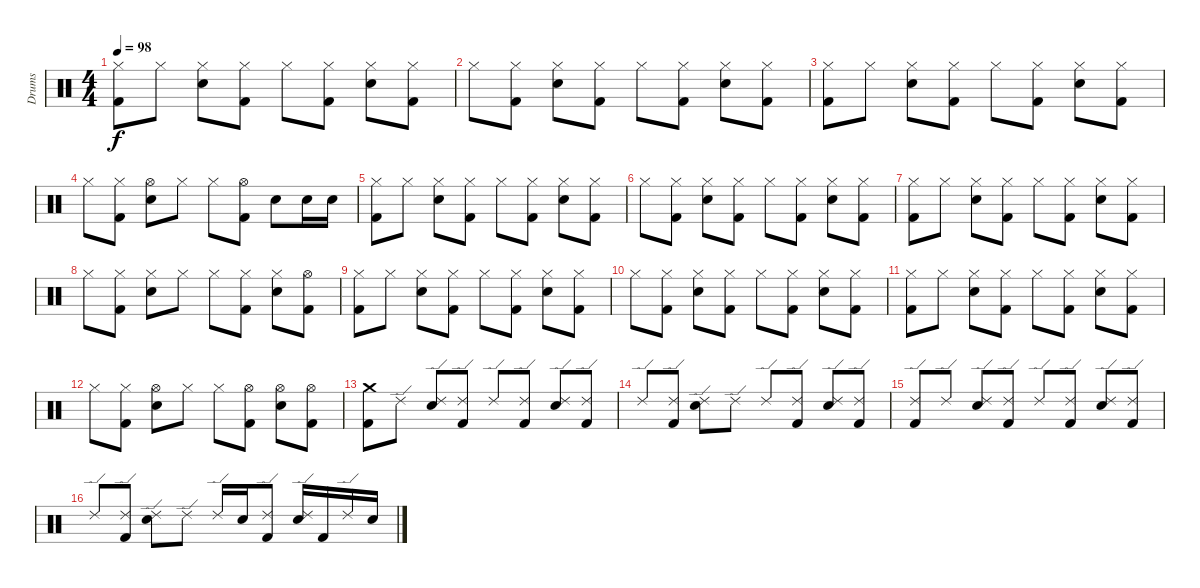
\track ("Drums" "Drums") {instrument percussion}
\staff {score}
\articulation defaults
\ts (4 4)
\tempo 98
\clef neutral
\ks c
("Hi-Hat (closed)" "Kick (hit) 2").8{dy f} "Hi-Hat (closed)".8 ("Hi-Hat (closed)" "Electric Snare (hit)").8 ("Hi-Hat (closed)" "Kick (hit) 2").8 "Hi-Hat (closed)".8 ("Hi-Hat (closed)" "Kick (hit) 2").8 ("Hi-Hat (closed)" "Electric Snare (hit)").8 ("Hi-Hat (closed)" "Kick (hit) 2").8 |
"Hi-Hat (closed)".8 ("Hi-Hat (closed)" "Kick (hit) 2").8 ("Hi-Hat (closed)" "Electric Snare (hit)").8 ("Hi-Hat (closed)" "Kick (hit) 2").8 "Hi-Hat (closed)".8 ("Hi-Hat (closed)" "Kick (hit) 2").8 ("Hi-Hat (closed)" "Electric Snare (hit)").8 ("Hi-Hat (closed)" "Kick (hit) 2").8 |
("Hi-Hat (closed)" "Kick (hit) 2").8 "Hi-Hat (closed)".8 ("Hi-Hat (closed)" "Electric Snare (hit)").8 ("Hi-Hat (closed)" "Kick (hit) 2").8 "Hi-Hat (closed)".8 ("Hi-Hat (closed)" "Kick (hit) 2").8 ("Hi-Hat (closed)" "Electric Snare (hit)").8 ("Hi-Hat (closed)" "Kick (hit) 2").8 |
"Hi-Hat (closed)".8 ("Hi-Hat (closed)" "Kick (hit) 2").8 ("Hi-Hat (open)" "Electric Snare (hit)").8 "Hi-Hat (closed)".8 "Hi-Hat (closed)".8 ("Hi-Hat (open)" "Kick (hit) 2").8 "Electric Snare (hit)".8 "Electric Snare (hit)".16 "Electric Snare (hit)".16 |
("Hi-Hat (closed)" "Kick (hit) 2").8 "Hi-Hat (closed)".8 ("Hi-Hat (closed)" "Electric Snare (hit)").8 ("Hi-Hat (closed)" "Kick (hit) 2").8 "Hi-Hat (closed)".8 ("Hi-Hat (closed)" "Kick (hit) 2").8 ("Hi-Hat (closed)" "Electric Snare (hit)").8 ("Hi-Hat (closed)" "Kick (hit) 2").8 |
"Hi-Hat (closed)".8 ("Hi-Hat (closed)" "Kick (hit) 2").8 ("Hi-Hat (closed)" "Electric Snare (hit)").8 ("Hi-Hat (closed)" "Kick (hit) 2").8 "Hi-Hat (closed)".8 ("Hi-Hat (closed)" "Kick (hit) 2").8 ("Hi-Hat (closed)" "Electric Snare (hit)").8 ("Hi-Hat (closed)" "Kick (hit) 2").8 |
("Hi-Hat (closed)" "Kick (hit) 2").8 "Hi-Hat (closed)".8 ("Hi-Hat (closed)" "Electric Snare (hit)").8 ("Hi-Hat (closed)" "Kick (hit) 2").8 "Hi-Hat (closed)".8 ("Hi-Hat (closed)" "Kick (hit) 2").8 ("Hi-Hat (closed)" "Electric Snare (hit)").8 ("Hi-Hat (closed)" "Kick (hit) 2").8 |
"Hi-Hat (closed)".8 ("Hi-Hat (closed)" "Kick (hit) 2").8 ("Hi-Hat (closed)" "Electric Snare (hit)").8 "Hi-Hat (closed)".8 "Hi-Hat (closed)".8 ("Hi-Hat (closed)" "Kick (hit) 2").8 ("Hi-Hat (closed)" "Electric Snare (hit)").8 ("Hi-Hat (open)" "Kick (hit) 2").8 |
("Hi-Hat (closed)" "Kick (hit) 2").8 "Hi-Hat (closed)".8 ("Hi-Hat (closed)" "Electric Snare (hit)").8 ("Hi-Hat (closed)" "Kick (hit) 2").8 "Hi-Hat (closed)".8 ("Hi-Hat (closed)" "Kick (hit) 2").8 ("Hi-Hat (closed)" "Electric Snare (hit)").8 ("Hi-Hat (closed)" "Kick (hit) 2").8 |
"Hi-Hat (closed)".8 ("Hi-Hat (closed)" "Kick (hit) 2").8 ("Hi-Hat (closed)" "Electric Snare (hit)").8 ("Hi-Hat (closed)" "Kick (hit) 2").8 "Hi-Hat (closed)".8 ("Hi-Hat (closed)" "Kick (hit) 2").8 ("Hi-Hat (closed)" "Electric Snare (hit)").8 ("Hi-Hat (closed)" "Kick (hit) 2").8 |
("Hi-Hat (closed)" "Kick (hit) 2").8 "Hi-Hat (closed)".8 ("Hi-Hat (closed)" "Electric Snare (hit)").8 ("Hi-Hat (closed)" "Kick (hit) 2").8 "Hi-Hat (closed)".8 ("Hi-Hat (closed)" "Kick (hit) 2").8 ("Hi-Hat (closed)" "Electric Snare (hit)").8 ("Hi-Hat (closed)" "Kick (hit) 2").8 |
"Hi-Hat (closed)".8 ("Hi-Hat (closed)" "Kick (hit) 2").8 ("Hi-Hat (open)" "Electric Snare (hit)").8 "Hi-Hat (closed)".8 "Hi-Hat (closed)".8 ("Hi-Hat (open)" "Kick (hit) 2").8 ("Hi-Hat (open)" "Electric Snare (hit)").8 ("Hi-Hat (open)" "Kick (hit) 2").8 |
("Crash medium (hit)" "Kick (hit) 2").8 "Ride (edge) 2".8 ("Ride (edge) 2" "Electric Snare (hit)").8 ("Ride (edge) 2" "Kick (hit) 2").8 "Ride (edge) 2".8 ("Ride (edge) 2" "Kick (hit) 2").8 ("Ride (edge) 2" "Electric Snare (hit)").8 ("Ride (edge) 2" "Kick (hit) 2").8 |
"Ride (edge) 2".8 ("Ride (edge) 2" "Kick (hit) 2").8 ("Ride (edge) 2" "Electric Snare (hit)").8 "Ride (edge) 2".8 "Ride (edge) 2".8 ("Ride (edge) 2" "Kick (hit) 2").8 ("Ride (edge) 2" "Electric Snare (hit)").8 ("Ride (edge) 2" "Kick (hit) 2").8 |
("Ride (edge) 2" "Kick (hit) 2").8 "Ride (edge) 2".8 ("Ride (edge) 2" "Electric Snare (hit)").8 ("Ride (edge) 2" "Kick (hit) 2").8 "Ride (edge) 2".8 ("Ride (edge) 2" "Kick (hit) 2").8 ("Ride (edge) 2" "Electric Snare (hit)").8 ("Ride (edge) 2" "Kick (hit) 2").8 |
"Ride (edge) 2".8 ("Ride (edge) 2" "Kick (hit) 2").8 ("Ride (edge) 2" "Electric Snare (hit)").8 "Ride (edge) 2".8 "Ride (edge) 2".16 "Electric Snare (hit)".16 ("Ride (edge) 2" "Kick (hit) 2").8 ("Ride (edge) 2" "Electric Snare (hit)").16 "Kick (hit) 2".16 "Ride (edge) 2".16 "Electric Snare (hit)".16
